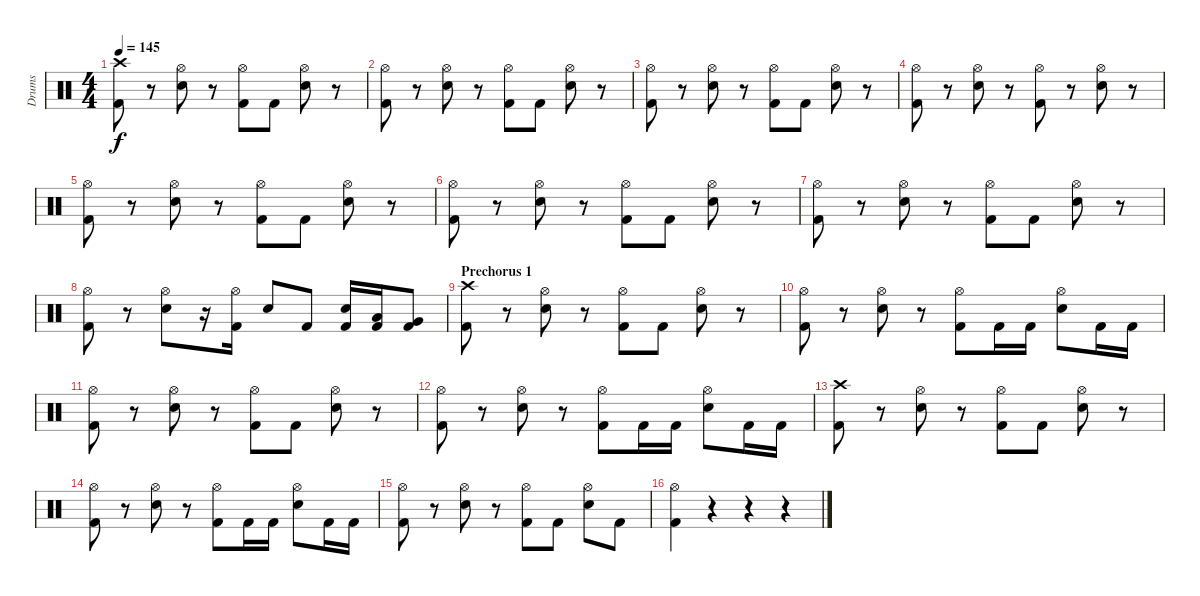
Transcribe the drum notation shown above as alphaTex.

\track ("Drums" "Drums") {instrument percussion}
\staff {score}
\articulation defaults
\ts (4 4)
\tempo 145
\clef neutral
\ks c
("Crash high (hit)" "Kick (hit) 2").8{dy f} r.8 ("Hi-Hat (open)" "Snare (hit) 2").8 r.8 ("Hi-Hat (open)" "Kick (hit) 2").8 "Kick (hit) 2".8 ("Hi-Hat (open)" "Snare (hit) 2").8 r.8 |
("Hi-Hat (open)" "Kick (hit) 2").8 r.8 ("Hi-Hat (open)" "Snare (hit) 2").8 r.8 ("Hi-Hat (open)" "Kick (hit) 2").8 "Kick (hit) 2".8 ("Hi-Hat (open)" "Snare (hit) 2").8 r.8 |
("Hi-Hat (open)" "Kick (hit) 2").8 r.8 ("Hi-Hat (open)" "Snare (hit) 2").8 r.8 ("Hi-Hat (open)" "Kick (hit) 2").8 "Kick (hit) 2".8 ("Hi-Hat (open)" "Snare (hit) 2").8 r.8 |
("Hi-Hat (open)" "Kick (hit) 2").8 r.8 ("Hi-Hat (open)" "Snare (hit) 2").8 r.8 ("Hi-Hat (open)" "Kick (hit) 2").8 r.8 ("Hi-Hat (open)" "Snare (hit) 2").8 r.8 |
("Hi-Hat (open)" "Kick (hit) 2").8 r.8 ("Hi-Hat (open)" "Snare (hit) 2").8 r.8 ("Hi-Hat (open)" "Kick (hit) 2").8 "Kick (hit) 2".8 ("Hi-Hat (open)" "Snare (hit) 2").8 r.8 |
("Hi-Hat (open)" "Kick (hit) 2").8 r.8 ("Hi-Hat (open)" "Snare (hit) 2").8 r.8 ("Hi-Hat (open)" "Kick (hit) 2").8 "Kick (hit) 2".8 ("Hi-Hat (open)" "Snare (hit) 2").8 r.8 |
("Hi-Hat (open)" "Kick (hit) 2").8 r.8 ("Hi-Hat (open)" "Snare (hit) 2").8 r.8 ("Hi-Hat (open)" "Kick (hit) 2").8 "Kick (hit) 2".8 ("Hi-Hat (open)" "Snare (hit) 2").8 r.8 |
("Hi-Hat (open)" "Kick (hit) 2").8 r.8 ("Hi-Hat (open)" "Snare (hit) 2").8 r.16 ("Hi-Hat (open)" "Kick (hit) 2").16 "Snare (hit) 2".8 "Kick (hit) 2".8 ("Snare (hit) 2" "Kick (hit) 2").16 ("Low Tom (hit)" "Kick (hit) 2").16 ("Very Low Tom (hit)" "Kick (hit) 2").8 |
\section ("" "Prechorus 1")
("Crash high (hit)" "Kick (hit) 2").8 r.8 ("Hi-Hat (open)" "Snare (hit) 2").8 r.8 ("Hi-Hat (open)" "Kick (hit) 2").8 "Kick (hit) 2".8 ("Hi-Hat (open)" "Snare (hit) 2").8 r.8 |
("Hi-Hat (open)" "Kick (hit) 2").8 r.8 ("Hi-Hat (open)" "Snare (hit) 2").8 r.8 ("Hi-Hat (open)" "Kick (hit) 2").8 "Kick (hit) 2".16 "Kick (hit) 2".16 ("Hi-Hat (open)" "Snare (hit) 2").8 "Kick (hit) 2".16 "Kick (hit) 2".16 |
("Hi-Hat (open)" "Kick (hit) 2").8 r.8 ("Hi-Hat (open)" "Snare (hit) 2").8 r.8 ("Hi-Hat (open)" "Kick (hit) 2").8 "Kick (hit) 2".8 ("Hi-Hat (open)" "Snare (hit) 2").8 r.8 |
("Hi-Hat (open)" "Kick (hit) 2").8 r.8 ("Hi-Hat (open)" "Snare (hit) 2").8 r.8 ("Hi-Hat (open)" "Kick (hit) 2").8 "Kick (hit) 2".16 "Kick (hit) 2".16 ("Hi-Hat (open)" "Snare (hit) 2").8 "Kick (hit) 2".16 "Kick (hit) 2".16 |
("Crash high (hit)" "Kick (hit) 2").8 r.8 ("Hi-Hat (open)" "Snare (hit) 2").8 r.8 ("Hi-Hat (open)" "Kick (hit) 2").8 "Kick (hit) 2".8 ("Hi-Hat (open)" "Snare (hit) 2").8 r.8 |
("Hi-Hat (open)" "Kick (hit) 2").8 r.8 ("Hi-Hat (open)" "Snare (hit) 2").8 r.8 ("Hi-Hat (open)" "Kick (hit) 2").8 "Kick (hit) 2".16 "Kick (hit) 2".16 ("Hi-Hat (open)" "Snare (hit) 2").8 "Kick (hit) 2".16 "Kick (hit) 2".16 |
("Hi-Hat (open)" "Kick (hit) 2").8 r.8 ("Hi-Hat (open)" "Snare (hit) 2").8 r.8 ("Hi-Hat (open)" "Kick (hit) 2").8 "Kick (hit) 2".8 ("Hi-Hat (open)" "Snare (hit) 2").8 "Kick (hit) 2".8 |
("Hi-Hat (open)" "Kick (hit) 2").4 r.4 r.4 r.4
